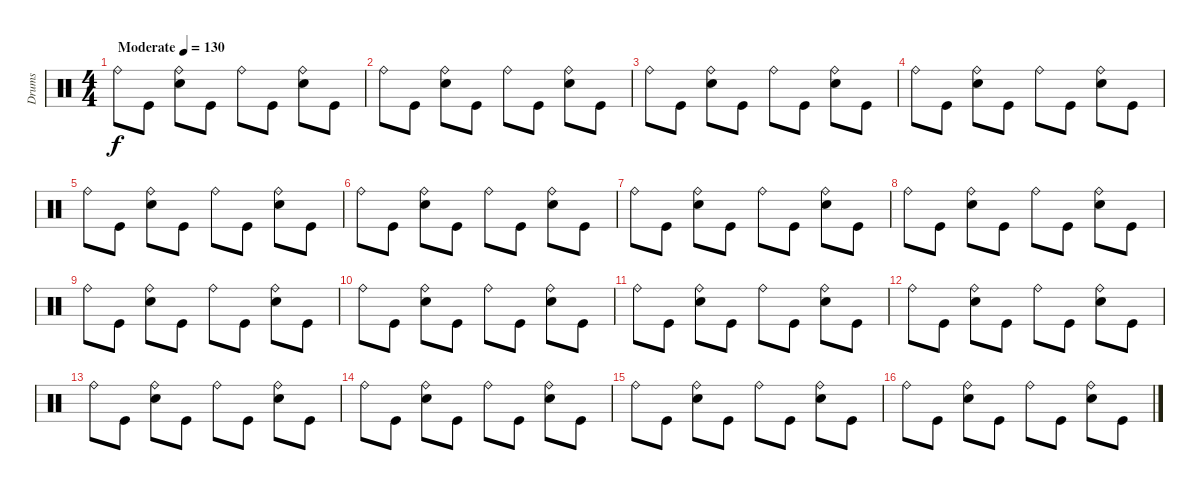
\track ("Drums" "Drums") {instrument percussion}
\staff {score}
\articulation defaults
\ts (4 4)
\tempo (130 "Moderate")
\clef neutral
\ks c "Ride (bell)".8{dy f} "Kick (hit)".8
("Ride (bell)" "Electric Snare (hit)").8 "Kick (hit)".8 "Ride (bell)".8 "Kick (hit)".8 ("Ride (bell)" "Electric Snare (hit)").8 "Kick (hit)".8 |
"Ride (bell)".8 "Kick (hit)".8 ("Ride (bell)" "Electric Snare (hit)").8 "Kick (hit)".8 "Ride (bell)".8 "Kick (hit)".8 ("Ride (bell)" "Electric Snare (hit)").8 "Kick (hit)".8 |
"Ride (bell)".8 "Kick (hit)".8 ("Ride (bell)" "Electric Snare (hit)").8 "Kick (hit)".8 "Ride (bell)".8 "Kick (hit)".8 ("Ride (bell)" "Electric Snare (hit)").8 "Kick (hit)".8 |
"Ride (bell)".8 "Kick (hit)".8 ("Ride (bell)" "Electric Snare (hit)").8 "Kick (hit)".8 "Ride (bell)".8 "Kick (hit)".8 ("Ride (bell)" "Electric Snare (hit)").8 "Kick (hit)".8 |
"Ride (bell)".8 "Kick (hit)".8 ("Ride (bell)" "Electric Snare (hit)").8 "Kick (hit)".8 "Ride (bell)".8 "Kick (hit)".8 ("Ride (bell)" "Electric Snare (hit)").8 "Kick (hit)".8 |
"Ride (bell)".8 "Kick (hit)".8 ("Ride (bell)" "Electric Snare (hit)").8 "Kick (hit)".8 "Ride (bell)".8 "Kick (hit)".8 ("Ride (bell)" "Electric Snare (hit)").8 "Kick (hit)".8 |
"Ride (bell)".8 "Kick (hit)".8 ("Ride (bell)" "Electric Snare (hit)").8 "Kick (hit)".8 "Ride (bell)".8 "Kick (hit)".8 ("Ride (bell)" "Electric Snare (hit)").8 "Kick (hit)".8 |
"Ride (bell)".8 "Kick (hit)".8 ("Ride (bell)" "Electric Snare (hit)").8 "Kick (hit)".8 "Ride (bell)".8 "Kick (hit)".8 ("Ride (bell)" "Electric Snare (hit)").8 "Kick (hit)".8 |
"Ride (bell)".8 "Kick (hit)".8 ("Ride (bell)" "Electric Snare (hit)").8 "Kick (hit)".8 "Ride (bell)".8 "Kick (hit)".8 ("Ride (bell)" "Electric Snare (hit)").8 "Kick (hit)".8 |
"Ride (bell)".8 "Kick (hit)".8 ("Ride (bell)" "Electric Snare (hit)").8 "Kick (hit)".8 "Ride (bell)".8 "Kick (hit)".8 ("Ride (bell)" "Electric Snare (hit)").8 "Kick (hit)".8 |
"Ride (bell)".8 "Kick (hit)".8 ("Ride (bell)" "Electric Snare (hit)").8 "Kick (hit)".8 "Ride (bell)".8 "Kick (hit)".8 ("Ride (bell)" "Electric Snare (hit)").8 "Kick (hit)".8 |
"Ride (bell)".8 "Kick (hit)".8 ("Ride (bell)" "Electric Snare (hit)").8 "Kick (hit)".8 "Ride (bell)".8 "Kick (hit)".8 ("Ride (bell)" "Electric Snare (hit)").8 "Kick (hit)".8 |
"Ride (bell)".8 "Kick (hit)".8 ("Ride (bell)" "Electric Snare (hit)").8 "Kick (hit)".8 "Ride (bell)".8 "Kick (hit)".8 ("Ride (bell)" "Electric Snare (hit)").8 "Kick (hit)".8 |
"Ride (bell)".8 "Kick (hit)".8 ("Ride (bell)" "Electric Snare (hit)").8 "Kick (hit)".8 "Ride (bell)".8 "Kick (hit)".8 ("Ride (bell)" "Electric Snare (hit)").8 "Kick (hit)".8 |
"Ride (bell)".8 "Kick (hit)".8 ("Ride (bell)" "Electric Snare (hit)").8 "Kick (hit)".8 "Ride (bell)".8 "Kick (hit)".8 ("Ride (bell)" "Electric Snare (hit)").8 "Kick (hit)".8 |
"Ride (bell)".8 "Kick (hit)".8 ("Ride (bell)" "Electric Snare (hit)").8 "Kick (hit)".8 "Ride (bell)".8 "Kick (hit)".8 ("Ride (bell)" "Electric Snare (hit)").8 "Kick (hit)".8
